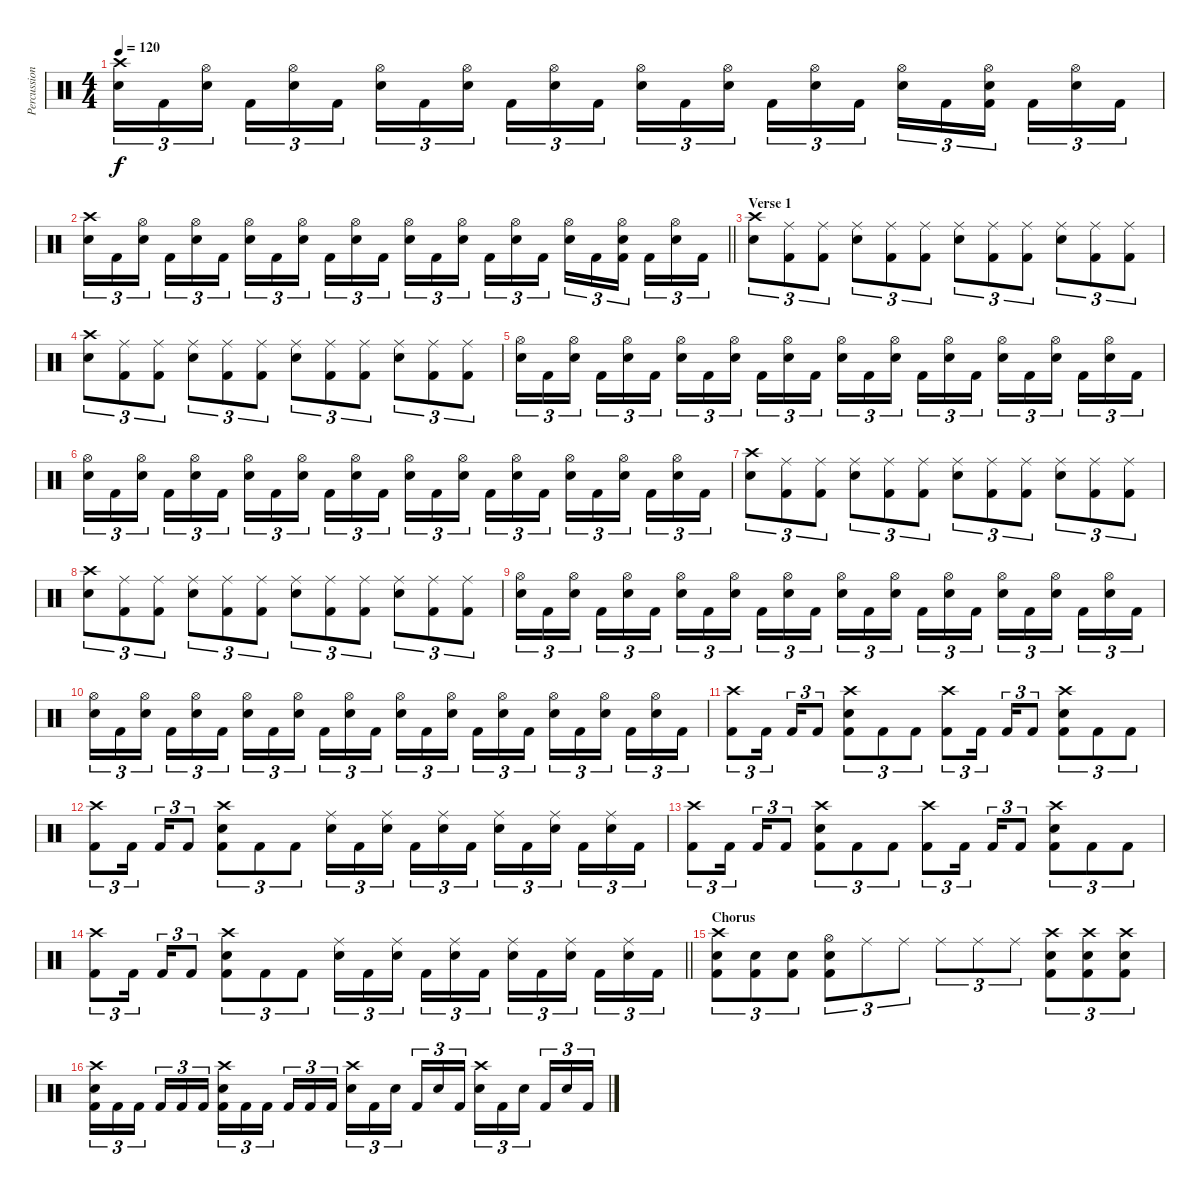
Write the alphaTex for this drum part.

\track ("Percussion" "Percussion") {instrument percussion}
\staff {score}
\articulation defaults
\ts (4 4)
\tempo 120
\clef neutral
\ks c
("Crash high (hit)" "Snare (hit) 2").16{tu (3 2) dy f} "Kick (hit) 2".16{tu (3 2)} ("Hi-Hat (open)" "Snare (hit) 2").16{tu (3 2) beam splitsecondary} "Kick (hit) 2".16{tu (3 2)} ("Hi-Hat (open)" "Snare (hit) 2").16{tu (3 2)} "Kick (hit) 2".16{tu (3 2)} ("Hi-Hat (open)" "Snare (hit) 2").16{tu (3 2)} "Kick (hit) 2".16{tu (3 2)} ("Hi-Hat (open)" "Snare (hit) 2").16{tu (3 2) beam splitsecondary} "Kick (hit) 2".16{tu (3 2)} ("Hi-Hat (open)" "Snare (hit) 2").16{tu (3 2)} "Kick (hit) 2".16{tu (3 2)} ("Hi-Hat (open)" "Snare (hit) 2").16{tu (3 2)} "Kick (hit) 2".16{tu (3 2)} ("Hi-Hat (open)" "Snare (hit) 2").16{tu (3 2) beam splitsecondary} "Kick (hit) 2".16{tu (3 2)} ("Hi-Hat (open)" "Snare (hit) 2").16{tu (3 2)} "Kick (hit) 2".16{tu (3 2)} ("Hi-Hat (open)" "Snare (hit) 2").16{tu (3 2)} "Kick (hit) 2".16{tu (3 2)} ("Hi-Hat (open)" "Snare (hit) 2" "Kick (hit) 2").16{tu (3 2) beam splitsecondary} "Kick (hit) 2".16{tu (3 2)} ("Hi-Hat (open)" "Snare (hit) 2").16{tu (3 2)} "Kick (hit) 2".16{tu (3 2)} |
\barLineRight lightlight
("Crash high (hit)" "Snare (hit) 2").16{tu (3 2)} "Kick (hit) 2".16{tu (3 2)} ("Hi-Hat (open)" "Snare (hit) 2").16{tu (3 2) beam splitsecondary} "Kick (hit) 2".16{tu (3 2)} ("Hi-Hat (open)" "Snare (hit) 2").16{tu (3 2)} "Kick (hit) 2".16{tu (3 2)} ("Hi-Hat (open)" "Snare (hit) 2").16{tu (3 2)} "Kick (hit) 2".16{tu (3 2)} ("Hi-Hat (open)" "Snare (hit) 2").16{tu (3 2) beam splitsecondary} "Kick (hit) 2".16{tu (3 2)} ("Hi-Hat (open)" "Snare (hit) 2").16{tu (3 2)} "Kick (hit) 2".16{tu (3 2)} ("Hi-Hat (open)" "Snare (hit) 2").16{tu (3 2)} "Kick (hit) 2".16{tu (3 2)} ("Hi-Hat (open)" "Snare (hit) 2").16{tu (3 2) beam splitsecondary} "Kick (hit) 2".16{tu (3 2)} ("Hi-Hat (open)" "Snare (hit) 2").16{tu (3 2)} "Kick (hit) 2".16{tu (3 2)} ("Hi-Hat (open)" "Snare (hit) 2").16{tu (3 2)} "Kick (hit) 2".16{tu (3 2)} ("Hi-Hat (open)" "Snare (hit) 2" "Kick (hit) 2").16{tu (3 2) beam splitsecondary} "Kick (hit) 2".16{tu (3 2)} ("Hi-Hat (open)" "Snare (hit) 2").16{tu (3 2)} "Kick (hit) 2".16{tu (3 2)} |
\section ("" "Verse 1")
("Crash high (hit)" "Snare (hit) 2").8{tu (3 2)} ("Ride (middle)" "Kick (hit) 2").8{tu (3 2)} ("Ride (middle)" "Kick (hit) 2").8{tu (3 2)} ("Ride (middle)" "Snare (hit) 2").8{tu (3 2)} ("Ride (middle)" "Kick (hit) 2").8{tu (3 2)} ("Ride (middle)" "Kick (hit) 2").8{tu (3 2)} ("Ride (middle)" "Snare (hit) 2").8{tu (3 2)} ("Ride (middle)" "Kick (hit) 2").8{tu (3 2)} ("Ride (middle)" "Kick (hit) 2").8{tu (3 2)} ("Ride (middle)" "Snare (hit) 2").8{tu (3 2)} ("Ride (middle)" "Kick (hit) 2").8{tu (3 2)} ("Ride (middle)" "Kick (hit) 2").8{tu (3 2)} |
("Crash high (hit)" "Snare (hit) 2").8{tu (3 2)} ("Ride (middle)" "Kick (hit) 2").8{tu (3 2)} ("Ride (middle)" "Kick (hit) 2").8{tu (3 2)} ("Ride (middle)" "Snare (hit) 2").8{tu (3 2)} ("Ride (middle)" "Kick (hit) 2").8{tu (3 2)} ("Ride (middle)" "Kick (hit) 2").8{tu (3 2)} ("Ride (middle)" "Snare (hit) 2").8{tu (3 2)} ("Ride (middle)" "Kick (hit) 2").8{tu (3 2)} ("Ride (middle)" "Kick (hit) 2").8{tu (3 2)} ("Ride (middle)" "Snare (hit) 2").8{tu (3 2)} ("Ride (middle)" "Kick (hit) 2").8{tu (3 2)} ("Ride (middle)" "Kick (hit) 2").8{tu (3 2)} |
("Hi-Hat (open)" "Snare (hit) 2").16{tu (3 2)} "Kick (hit) 2".16{tu (3 2)} ("Hi-Hat (open)" "Snare (hit) 2").16{tu (3 2) beam splitsecondary} "Kick (hit) 2".16{tu (3 2)} ("Hi-Hat (open)" "Snare (hit) 2").16{tu (3 2)} "Kick (hit) 2".16{tu (3 2)} ("Hi-Hat (open)" "Snare (hit) 2").16{tu (3 2)} "Kick (hit) 2".16{tu (3 2)} ("Hi-Hat (open)" "Snare (hit) 2").16{tu (3 2) beam splitsecondary} "Kick (hit) 2".16{tu (3 2)} ("Hi-Hat (open)" "Snare (hit) 2").16{tu (3 2)} "Kick (hit) 2".16{tu (3 2)} ("Hi-Hat (open)" "Snare (hit) 2").16{tu (3 2)} "Kick (hit) 2".16{tu (3 2)} ("Hi-Hat (open)" "Snare (hit) 2").16{tu (3 2) beam splitsecondary} "Kick (hit) 2".16{tu (3 2)} ("Hi-Hat (open)" "Snare (hit) 2").16{tu (3 2)} "Kick (hit) 2".16{tu (3 2)} ("Hi-Hat (open)" "Snare (hit) 2").16{tu (3 2)} "Kick (hit) 2".16{tu (3 2)} ("Hi-Hat (open)" "Snare (hit) 2").16{tu (3 2) beam splitsecondary} "Kick (hit) 2".16{tu (3 2)} ("Hi-Hat (open)" "Snare (hit) 2").16{tu (3 2)} "Kick (hit) 2".16{tu (3 2)} |
("Hi-Hat (open)" "Snare (hit) 2").16{tu (3 2)} "Kick (hit) 2".16{tu (3 2)} ("Hi-Hat (open)" "Snare (hit) 2").16{tu (3 2) beam splitsecondary} "Kick (hit) 2".16{tu (3 2)} ("Hi-Hat (open)" "Snare (hit) 2").16{tu (3 2)} "Kick (hit) 2".16{tu (3 2)} ("Hi-Hat (open)" "Snare (hit) 2").16{tu (3 2)} "Kick (hit) 2".16{tu (3 2)} ("Hi-Hat (open)" "Snare (hit) 2").16{tu (3 2) beam splitsecondary} "Kick (hit) 2".16{tu (3 2)} ("Hi-Hat (open)" "Snare (hit) 2").16{tu (3 2)} "Kick (hit) 2".16{tu (3 2)} ("Hi-Hat (open)" "Snare (hit) 2").16{tu (3 2)} "Kick (hit) 2".16{tu (3 2)} ("Hi-Hat (open)" "Snare (hit) 2").16{tu (3 2) beam splitsecondary} "Kick (hit) 2".16{tu (3 2)} ("Hi-Hat (open)" "Snare (hit) 2").16{tu (3 2)} "Kick (hit) 2".16{tu (3 2)} ("Hi-Hat (open)" "Snare (hit) 2").16{tu (3 2)} "Kick (hit) 2".16{tu (3 2)} ("Hi-Hat (open)" "Snare (hit) 2").16{tu (3 2) beam splitsecondary} "Kick (hit) 2".16{tu (3 2)} ("Hi-Hat (open)" "Snare (hit) 2").16{tu (3 2)} "Kick (hit) 2".16{tu (3 2)} |
("Crash high (hit)" "Snare (hit) 2").8{tu (3 2)} ("Ride (middle)" "Kick (hit) 2").8{tu (3 2)} ("Ride (middle)" "Kick (hit) 2").8{tu (3 2)} ("Ride (middle)" "Snare (hit) 2").8{tu (3 2)} ("Ride (middle)" "Kick (hit) 2").8{tu (3 2)} ("Ride (middle)" "Kick (hit) 2").8{tu (3 2)} ("Ride (middle)" "Snare (hit) 2").8{tu (3 2)} ("Ride (middle)" "Kick (hit) 2").8{tu (3 2)} ("Ride (middle)" "Kick (hit) 2").8{tu (3 2)} ("Ride (middle)" "Snare (hit) 2").8{tu (3 2)} ("Ride (middle)" "Kick (hit) 2").8{tu (3 2)} ("Ride (middle)" "Kick (hit) 2").8{tu (3 2)} |
("Crash high (hit)" "Snare (hit) 2").8{tu (3 2)} ("Ride (middle)" "Kick (hit) 2").8{tu (3 2)} ("Ride (middle)" "Kick (hit) 2").8{tu (3 2)} ("Ride (middle)" "Snare (hit) 2").8{tu (3 2)} ("Ride (middle)" "Kick (hit) 2").8{tu (3 2)} ("Ride (middle)" "Kick (hit) 2").8{tu (3 2)} ("Ride (middle)" "Snare (hit) 2").8{tu (3 2)} ("Ride (middle)" "Kick (hit) 2").8{tu (3 2)} ("Ride (middle)" "Kick (hit) 2").8{tu (3 2)} ("Ride (middle)" "Snare (hit) 2").8{tu (3 2)} ("Ride (middle)" "Kick (hit) 2").8{tu (3 2)} ("Ride (middle)" "Kick (hit) 2").8{tu (3 2)} |
("Hi-Hat (open)" "Snare (hit) 2").16{tu (3 2)} "Kick (hit) 2".16{tu (3 2)} ("Hi-Hat (open)" "Snare (hit) 2").16{tu (3 2) beam splitsecondary} "Kick (hit) 2".16{tu (3 2)} ("Hi-Hat (open)" "Snare (hit) 2").16{tu (3 2)} "Kick (hit) 2".16{tu (3 2)} ("Hi-Hat (open)" "Snare (hit) 2").16{tu (3 2)} "Kick (hit) 2".16{tu (3 2)} ("Hi-Hat (open)" "Snare (hit) 2").16{tu (3 2) beam splitsecondary} "Kick (hit) 2".16{tu (3 2)} ("Hi-Hat (open)" "Snare (hit) 2").16{tu (3 2)} "Kick (hit) 2".16{tu (3 2)} ("Hi-Hat (open)" "Snare (hit) 2").16{tu (3 2)} "Kick (hit) 2".16{tu (3 2)} ("Hi-Hat (open)" "Snare (hit) 2").16{tu (3 2) beam splitsecondary} "Kick (hit) 2".16{tu (3 2)} ("Hi-Hat (open)" "Snare (hit) 2").16{tu (3 2)} "Kick (hit) 2".16{tu (3 2)} ("Hi-Hat (open)" "Snare (hit) 2").16{tu (3 2)} "Kick (hit) 2".16{tu (3 2)} ("Hi-Hat (open)" "Snare (hit) 2").16{tu (3 2) beam splitsecondary} "Kick (hit) 2".16{tu (3 2)} ("Hi-Hat (open)" "Snare (hit) 2").16{tu (3 2)} "Kick (hit) 2".16{tu (3 2)} |
("Hi-Hat (open)" "Snare (hit) 2").16{tu (3 2)} "Kick (hit) 2".16{tu (3 2)} ("Hi-Hat (open)" "Snare (hit) 2").16{tu (3 2) beam splitsecondary} "Kick (hit) 2".16{tu (3 2)} ("Hi-Hat (open)" "Snare (hit) 2").16{tu (3 2)} "Kick (hit) 2".16{tu (3 2)} ("Hi-Hat (open)" "Snare (hit) 2").16{tu (3 2)} "Kick (hit) 2".16{tu (3 2)} ("Hi-Hat (open)" "Snare (hit) 2").16{tu (3 2) beam splitsecondary} "Kick (hit) 2".16{tu (3 2)} ("Hi-Hat (open)" "Snare (hit) 2").16{tu (3 2)} "Kick (hit) 2".16{tu (3 2)} ("Hi-Hat (open)" "Snare (hit) 2").16{tu (3 2)} "Kick (hit) 2".16{tu (3 2)} ("Hi-Hat (open)" "Snare (hit) 2").16{tu (3 2) beam splitsecondary} "Kick (hit) 2".16{tu (3 2)} ("Hi-Hat (open)" "Snare (hit) 2").16{tu (3 2)} "Kick (hit) 2".16{tu (3 2)} ("Hi-Hat (open)" "Snare (hit) 2").16{tu (3 2)} "Kick (hit) 2".16{tu (3 2)} ("Hi-Hat (open)" "Snare (hit) 2").16{tu (3 2) beam splitsecondary} "Kick (hit) 2".16{tu (3 2)} ("Hi-Hat (open)" "Snare (hit) 2").16{tu (3 2)} "Kick (hit) 2".16{tu (3 2)} |
("Crash high (hit)" "Kick (hit) 2").8{tu (3 2)} "Kick (hit) 2".16{tu (3 2) beam splitsecondary} "Kick (hit) 2".16{tu (3 2)} "Kick (hit) 2".8{tu (3 2)} ("Crash high (hit)" "Snare (hit) 2" "Kick (hit) 2").8{tu (3 2)} "Kick (hit) 2".8{tu (3 2)} "Kick (hit) 2".8{tu (3 2)} ("Crash high (hit)" "Kick (hit) 2").8{tu (3 2)} "Kick (hit) 2".16{tu (3 2) beam splitsecondary} "Kick (hit) 2".16{tu (3 2)} "Kick (hit) 2".8{tu (3 2)} ("Crash high (hit)" "Snare (hit) 2" "Kick (hit) 2").8{tu (3 2)} "Kick (hit) 2".8{tu (3 2)} "Kick (hit) 2".8{tu (3 2)} |
("Crash high (hit)" "Kick (hit) 2").8{tu (3 2)} "Kick (hit) 2".16{tu (3 2) beam splitsecondary} "Kick (hit) 2".16{tu (3 2)} "Kick (hit) 2".8{tu (3 2)} ("Crash high (hit)" "Snare (hit) 2" "Kick (hit) 2").8{tu (3 2)} "Kick (hit) 2".8{tu (3 2)} "Kick (hit) 2".8{tu (3 2)} ("Ride (middle)" "Snare (hit) 2").16{tu (3 2)} "Kick (hit) 2".16{tu (3 2)} ("Ride (middle)" "Snare (hit) 2").16{tu (3 2) beam splitsecondary} "Kick (hit) 2".16{tu (3 2)} ("Ride (middle)" "Snare (hit) 2").16{tu (3 2)} "Kick (hit) 2".16{tu (3 2)} ("Ride (middle)" "Snare (hit) 2").16{tu (3 2)} "Kick (hit) 2".16{tu (3 2)} ("Ride (middle)" "Snare (hit) 2").16{tu (3 2) beam splitsecondary} "Kick (hit) 2".16{tu (3 2)} ("Ride (middle)" "Snare (hit) 2").16{tu (3 2)} "Kick (hit) 2".16{tu (3 2)} |
("Crash high (hit)" "Kick (hit) 2").8{tu (3 2)} "Kick (hit) 2".16{tu (3 2) beam splitsecondary} "Kick (hit) 2".16{tu (3 2)} "Kick (hit) 2".8{tu (3 2)} ("Crash high (hit)" "Snare (hit) 2" "Kick (hit) 2").8{tu (3 2)} "Kick (hit) 2".8{tu (3 2)} "Kick (hit) 2".8{tu (3 2)} ("Crash high (hit)" "Kick (hit) 2").8{tu (3 2)} "Kick (hit) 2".16{tu (3 2) beam splitsecondary} "Kick (hit) 2".16{tu (3 2)} "Kick (hit) 2".8{tu (3 2)} ("Crash high (hit)" "Snare (hit) 2" "Kick (hit) 2").8{tu (3 2)} "Kick (hit) 2".8{tu (3 2)} "Kick (hit) 2".8{tu (3 2)} |
\barLineRight lightlight
("Crash high (hit)" "Kick (hit) 2").8{tu (3 2)} "Kick (hit) 2".16{tu (3 2) beam splitsecondary} "Kick (hit) 2".16{tu (3 2)} "Kick (hit) 2".8{tu (3 2)} ("Crash high (hit)" "Snare (hit) 2" "Kick (hit) 2").8{tu (3 2)} "Kick (hit) 2".8{tu (3 2)} "Kick (hit) 2".8{tu (3 2)} ("Ride (middle)" "Snare (hit) 2").16{tu (3 2)} "Kick (hit) 2".16{tu (3 2)} ("Ride (middle)" "Snare (hit) 2").16{tu (3 2) beam splitsecondary} "Kick (hit) 2".16{tu (3 2)} ("Ride (middle)" "Snare (hit) 2").16{tu (3 2)} "Kick (hit) 2".16{tu (3 2)} ("Ride (middle)" "Snare (hit) 2").16{tu (3 2)} "Kick (hit) 2".16{tu (3 2)} ("Ride (middle)" "Snare (hit) 2").16{tu (3 2) beam splitsecondary} "Kick (hit) 2".16{tu (3 2)} ("Ride (middle)" "Snare (hit) 2").16{tu (3 2)} "Kick (hit) 2".16{tu (3 2)} |
\section ("" "Chorus")
("Crash high (hit)" "Snare (hit) 2" "Kick (hit) 2").8{tu (3 2)} ("Snare (hit) 2" "Kick (hit) 2").8{tu (3 2)} ("Snare (hit) 2" "Kick (hit) 2").8{tu (3 2)} ("Hi-Hat (open)" "Snare (hit) 2" "Kick (hit) 2").8{tu (3 2)} "Ride (middle)".8{tu (3 2)} "Ride (middle)".8{tu (3 2)} "Ride (middle)".8{tu (3 2)} "Ride (middle)".8{tu (3 2)} "Ride (middle)".8{tu (3 2)} ("Crash high (hit)" "Snare (hit) 2" "Kick (hit) 2").8{tu (3 2)} ("Crash high (hit)" "Snare (hit) 2" "Kick (hit) 2").8{tu (3 2)} ("Crash high (hit)" "Snare (hit) 2" "Kick (hit) 2").8{tu (3 2)} |
("Crash high (hit)" "Snare (hit) 2" "Kick (hit) 2").16{tu (3 2)} "Kick (hit) 2".16{tu (3 2)} "Kick (hit) 2".16{tu (3 2) beam splitsecondary} "Kick (hit) 2".16{tu (3 2)} "Kick (hit) 2".16{tu (3 2)} "Kick (hit) 2".16{tu (3 2)} ("Crash high (hit)" "Snare (hit) 2" "Kick (hit) 2").16{tu (3 2)} "Kick (hit) 2".16{tu (3 2)} "Kick (hit) 2".16{tu (3 2) beam splitsecondary} "Kick (hit) 2".16{tu (3 2)} "Kick (hit) 2".16{tu (3 2)} "Kick (hit) 2".16{tu (3 2)} ("Crash high (hit)" "Snare (hit) 2").16{tu (3 2)} "Kick (hit) 2".16{tu (3 2)} "Snare (hit) 2".16{tu (3 2) beam splitsecondary} "Kick (hit) 2".16{tu (3 2)} "Snare (hit) 2".16{tu (3 2)} "Kick (hit) 2".16{tu (3 2)} ("Crash high (hit)" "Snare (hit) 2").16{tu (3 2)} "Kick (hit) 2".16{tu (3 2)} "Snare (hit) 2".16{tu (3 2) beam splitsecondary} "Kick (hit) 2".16{tu (3 2)} "Snare (hit) 2".16{tu (3 2)} "Kick (hit) 2".16{tu (3 2)}
